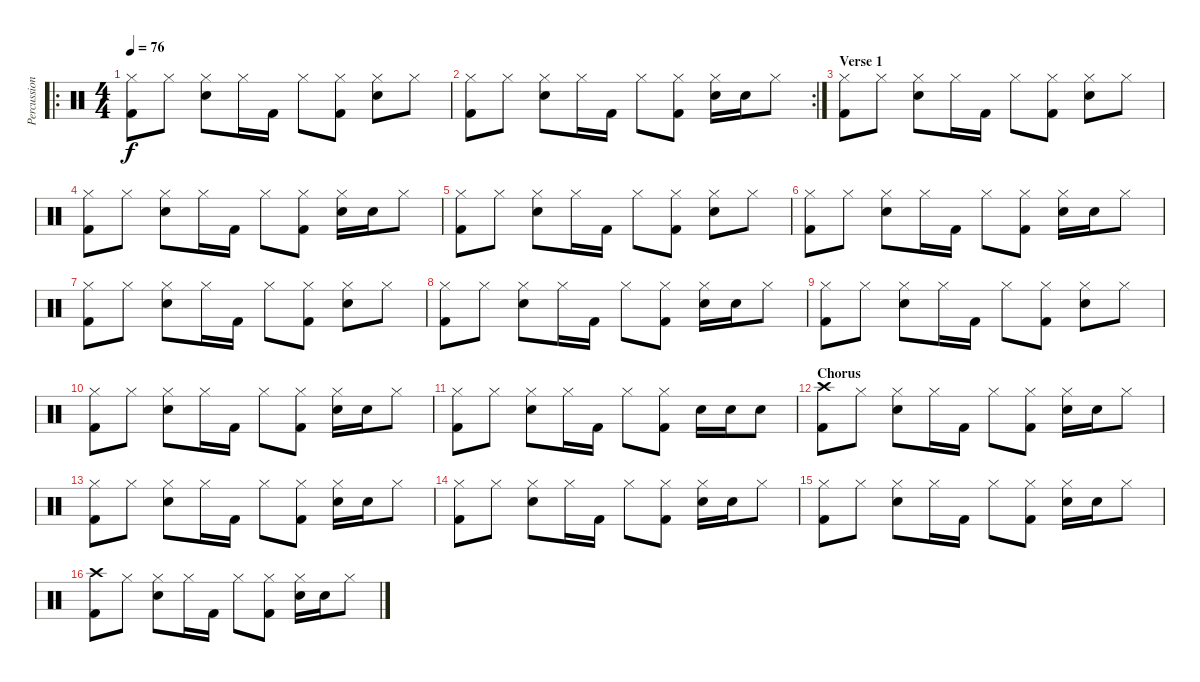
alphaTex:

\track ("Percussion" "Percussion") {instrument percussion}
\staff {score}
\articulation defaults
\ro
\ts (4 4)
\tempo 76
\clef neutral
\ks c
("Hi-Hat (closed)" "Kick (hit) 2").8{dy f} "Hi-Hat (closed)".8 ("Hi-Hat (closed)" "Electric Snare (hit)").8 "Hi-Hat (closed)".16 "Kick (hit) 2".16 "Hi-Hat (closed)".8 ("Hi-Hat (closed)" "Kick (hit) 2").8 ("Hi-Hat (closed)" "Electric Snare (hit)").8 "Hi-Hat (closed)".8 |
\rc 2
("Hi-Hat (closed)" "Kick (hit) 2").8 "Hi-Hat (closed)".8 ("Hi-Hat (closed)" "Electric Snare (hit)").8 "Hi-Hat (closed)".16 "Kick (hit) 2".16 "Hi-Hat (closed)".8 ("Hi-Hat (closed)" "Kick (hit) 2").8 ("Hi-Hat (closed)" "Electric Snare (hit)").16 "Electric Snare (hit)".16 "Hi-Hat (closed)".8 |
\section ("" "Verse 1")
("Hi-Hat (closed)" "Kick (hit) 2").8 "Hi-Hat (closed)".8 ("Hi-Hat (closed)" "Electric Snare (hit)").8 "Hi-Hat (closed)".16 "Kick (hit) 2".16 "Hi-Hat (closed)".8 ("Hi-Hat (closed)" "Kick (hit) 2").8 ("Hi-Hat (closed)" "Electric Snare (hit)").8 "Hi-Hat (closed)".8 |
("Hi-Hat (closed)" "Kick (hit) 2").8 "Hi-Hat (closed)".8 ("Hi-Hat (closed)" "Electric Snare (hit)").8 "Hi-Hat (closed)".16 "Kick (hit) 2".16 "Hi-Hat (closed)".8 ("Hi-Hat (closed)" "Kick (hit) 2").8 ("Hi-Hat (closed)" "Electric Snare (hit)").16 "Electric Snare (hit)".16 "Hi-Hat (closed)".8 |
("Hi-Hat (closed)" "Kick (hit) 2").8 "Hi-Hat (closed)".8 ("Hi-Hat (closed)" "Electric Snare (hit)").8 "Hi-Hat (closed)".16 "Kick (hit) 2".16 "Hi-Hat (closed)".8 ("Hi-Hat (closed)" "Kick (hit) 2").8 ("Hi-Hat (closed)" "Electric Snare (hit)").8 "Hi-Hat (closed)".8 |
("Hi-Hat (closed)" "Kick (hit) 2").8 "Hi-Hat (closed)".8 ("Hi-Hat (closed)" "Electric Snare (hit)").8 "Hi-Hat (closed)".16 "Kick (hit) 2".16 "Hi-Hat (closed)".8 ("Hi-Hat (closed)" "Kick (hit) 2").8 ("Hi-Hat (closed)" "Electric Snare (hit)").16 "Electric Snare (hit)".16 "Hi-Hat (closed)".8 |
("Hi-Hat (closed)" "Kick (hit) 2").8 "Hi-Hat (closed)".8 ("Hi-Hat (closed)" "Electric Snare (hit)").8 "Hi-Hat (closed)".16 "Kick (hit) 2".16 "Hi-Hat (closed)".8 ("Hi-Hat (closed)" "Kick (hit) 2").8 ("Hi-Hat (closed)" "Electric Snare (hit)").8 "Hi-Hat (closed)".8 |
("Hi-Hat (closed)" "Kick (hit) 2").8 "Hi-Hat (closed)".8 ("Hi-Hat (closed)" "Electric Snare (hit)").8 "Hi-Hat (closed)".16 "Kick (hit) 2".16 "Hi-Hat (closed)".8 ("Hi-Hat (closed)" "Kick (hit) 2").8 ("Hi-Hat (closed)" "Electric Snare (hit)").16 "Electric Snare (hit)".16 "Hi-Hat (closed)".8 |
("Hi-Hat (closed)" "Kick (hit) 2").8 "Hi-Hat (closed)".8 ("Hi-Hat (closed)" "Electric Snare (hit)").8 "Hi-Hat (closed)".16 "Kick (hit) 2".16 "Hi-Hat (closed)".8 ("Hi-Hat (closed)" "Kick (hit) 2").8 ("Hi-Hat (closed)" "Electric Snare (hit)").8 "Hi-Hat (closed)".8 |
("Hi-Hat (closed)" "Kick (hit) 2").8 "Hi-Hat (closed)".8 ("Hi-Hat (closed)" "Electric Snare (hit)").8 "Hi-Hat (closed)".16 "Kick (hit) 2".16 "Hi-Hat (closed)".8 ("Hi-Hat (closed)" "Kick (hit) 2").8 ("Hi-Hat (closed)" "Electric Snare (hit)").16 "Electric Snare (hit)".16 "Hi-Hat (closed)".8 |
("Hi-Hat (closed)" "Kick (hit) 2").8 "Hi-Hat (closed)".8 ("Hi-Hat (closed)" "Electric Snare (hit)").8 "Hi-Hat (closed)".16 "Kick (hit) 2".16 "Hi-Hat (closed)".8 ("Hi-Hat (closed)" "Kick (hit) 2").8 "Electric Snare (hit)".16 "Electric Snare (hit)".16 "Electric Snare (hit)".8 |
\section ("" "Chorus")
("Crash high (hit)" "Kick (hit) 2").8 "Hi-Hat (closed)".8 ("Hi-Hat (closed)" "Electric Snare (hit)").8 "Hi-Hat (closed)".16 "Kick (hit) 2".16 "Hi-Hat (closed)".8 ("Hi-Hat (closed)" "Kick (hit) 2").8 ("Hi-Hat (closed)" "Electric Snare (hit)").16 "Electric Snare (hit)".16 "Hi-Hat (closed)".8 |
("Hi-Hat (closed)" "Kick (hit) 2").8 "Hi-Hat (closed)".8 ("Hi-Hat (closed)" "Electric Snare (hit)").8 "Hi-Hat (closed)".16 "Kick (hit) 2".16 "Hi-Hat (closed)".8 ("Hi-Hat (closed)" "Kick (hit) 2").8 ("Hi-Hat (closed)" "Electric Snare (hit)").16 "Electric Snare (hit)".16 "Hi-Hat (closed)".8 |
("Hi-Hat (closed)" "Kick (hit) 2").8 "Hi-Hat (closed)".8 ("Hi-Hat (closed)" "Electric Snare (hit)").8 "Hi-Hat (closed)".16 "Kick (hit) 2".16 "Hi-Hat (closed)".8 ("Hi-Hat (closed)" "Kick (hit) 2").8 ("Hi-Hat (closed)" "Electric Snare (hit)").16 "Electric Snare (hit)".16 "Hi-Hat (closed)".8 |
("Hi-Hat (closed)" "Kick (hit) 2").8 "Hi-Hat (closed)".8 ("Hi-Hat (closed)" "Electric Snare (hit)").8 "Hi-Hat (closed)".16 "Kick (hit) 2".16 "Hi-Hat (closed)".8 ("Hi-Hat (closed)" "Kick (hit) 2").8 ("Hi-Hat (closed)" "Electric Snare (hit)").16 "Electric Snare (hit)".16 "Hi-Hat (closed)".8 |
("Crash high (hit)" "Kick (hit) 2").8 "Hi-Hat (closed)".8 ("Hi-Hat (closed)" "Electric Snare (hit)").8 "Hi-Hat (closed)".16 "Kick (hit) 2".16 "Hi-Hat (closed)".8 ("Hi-Hat (closed)" "Kick (hit) 2").8 ("Hi-Hat (closed)" "Electric Snare (hit)").16 "Electric Snare (hit)".16 "Hi-Hat (closed)".8
